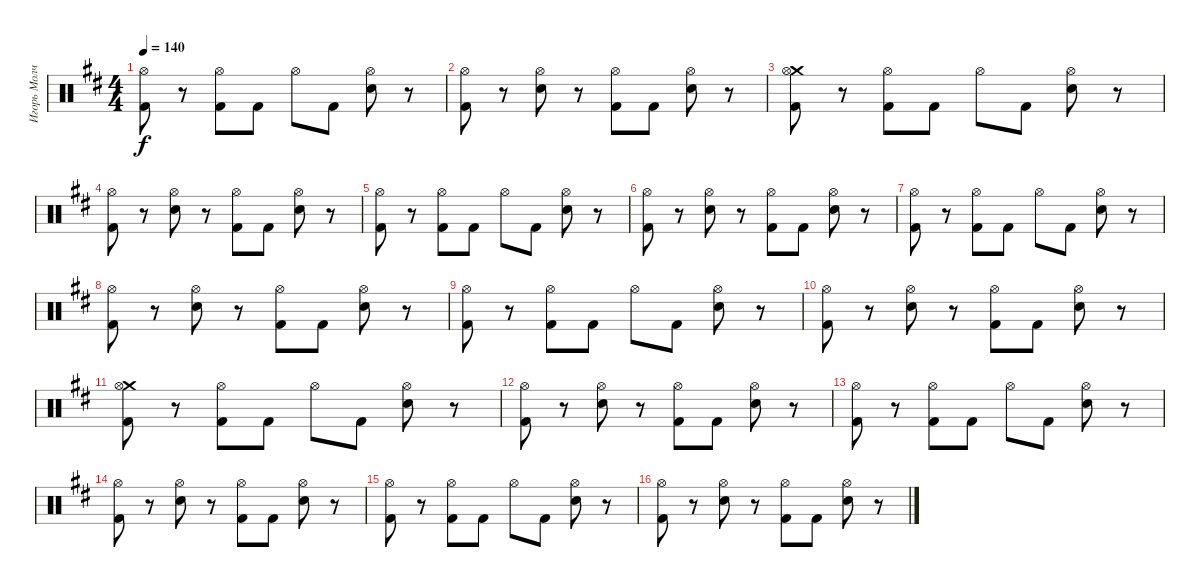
\track ("Игорь Молчанов" "Игорь Молч") {instrument percussion}
\staff {score}
\articulation defaults
\ts (4 4)
\tempo 140
\clef neutral
\ks d
("Hi-Hat (open)" "Kick (hit) 2").8{dy f} r.8 ("Hi-Hat (open)" "Kick (hit) 2").8 "Kick (hit) 2".8 "Hi-Hat (open)".8 "Kick (hit) 2".8 ("Hi-Hat (open)" "Snare (hit) 2").8 r.8 |
("Hi-Hat (open)" "Kick (hit) 2").8 r.8 ("Hi-Hat (open)" "Snare (hit) 2").8 r.8 ("Hi-Hat (open)" "Kick (hit) 2").8 "Kick (hit) 2".8 ("Hi-Hat (open)" "Snare (hit) 2").8 r.8 |
("Crash medium (hit)" "Hi-Hat (open)" "Kick (hit) 2").8 r.8 ("Hi-Hat (open)" "Kick (hit) 2").8 "Kick (hit) 2".8 "Hi-Hat (open)".8 "Kick (hit) 2".8 ("Hi-Hat (open)" "Snare (hit) 2").8 r.8 |
("Hi-Hat (open)" "Kick (hit) 2").8 r.8 ("Hi-Hat (open)" "Snare (hit) 2").8 r.8 ("Hi-Hat (open)" "Kick (hit) 2").8 "Kick (hit) 2".8 ("Hi-Hat (open)" "Snare (hit) 2").8 r.8 |
("Hi-Hat (open)" "Kick (hit) 2").8 r.8 ("Hi-Hat (open)" "Kick (hit) 2").8 "Kick (hit) 2".8 "Hi-Hat (open)".8 "Kick (hit) 2".8 ("Hi-Hat (open)" "Snare (hit) 2").8 r.8 |
("Hi-Hat (open)" "Kick (hit) 2").8 r.8 ("Hi-Hat (open)" "Snare (hit) 2").8 r.8 ("Hi-Hat (open)" "Kick (hit) 2").8 "Kick (hit) 2".8 ("Hi-Hat (open)" "Snare (hit) 2").8 r.8 |
("Hi-Hat (open)" "Kick (hit) 2").8 r.8 ("Hi-Hat (open)" "Kick (hit) 2").8 "Kick (hit) 2".8 "Hi-Hat (open)".8 "Kick (hit) 2".8 ("Hi-Hat (open)" "Snare (hit) 2").8 r.8 |
("Hi-Hat (open)" "Kick (hit) 2").8 r.8 ("Hi-Hat (open)" "Snare (hit) 2").8 r.8 ("Hi-Hat (open)" "Kick (hit) 2").8 "Kick (hit) 2".8 ("Hi-Hat (open)" "Snare (hit) 2").8 r.8 |
("Hi-Hat (open)" "Kick (hit) 2").8 r.8 ("Hi-Hat (open)" "Kick (hit) 2").8 "Kick (hit) 2".8 "Hi-Hat (open)".8 "Kick (hit) 2".8 ("Hi-Hat (open)" "Snare (hit) 2").8 r.8 |
("Hi-Hat (open)" "Kick (hit) 2").8 r.8 ("Hi-Hat (open)" "Snare (hit) 2").8 r.8 ("Hi-Hat (open)" "Kick (hit) 2").8 "Kick (hit) 2".8 ("Hi-Hat (open)" "Snare (hit) 2").8 r.8 |
("Crash medium (hit)" "Hi-Hat (open)" "Kick (hit) 2").8 r.8 ("Hi-Hat (open)" "Kick (hit) 2").8 "Kick (hit) 2".8 "Hi-Hat (open)".8 "Kick (hit) 2".8 ("Hi-Hat (open)" "Snare (hit) 2").8 r.8 |
("Hi-Hat (open)" "Kick (hit) 2").8 r.8 ("Hi-Hat (open)" "Snare (hit) 2").8 r.8 ("Hi-Hat (open)" "Kick (hit) 2").8 "Kick (hit) 2".8 ("Hi-Hat (open)" "Snare (hit) 2").8 r.8 |
("Hi-Hat (open)" "Kick (hit) 2").8 r.8 ("Hi-Hat (open)" "Kick (hit) 2").8 "Kick (hit) 2".8 "Hi-Hat (open)".8 "Kick (hit) 2".8 ("Hi-Hat (open)" "Snare (hit) 2").8 r.8 |
("Hi-Hat (open)" "Kick (hit) 2").8 r.8 ("Hi-Hat (open)" "Snare (hit) 2").8 r.8 ("Hi-Hat (open)" "Kick (hit) 2").8 "Kick (hit) 2".8 ("Hi-Hat (open)" "Snare (hit) 2").8 r.8 |
("Hi-Hat (open)" "Kick (hit) 2").8 r.8 ("Hi-Hat (open)" "Kick (hit) 2").8 "Kick (hit) 2".8 "Hi-Hat (open)".8 "Kick (hit) 2".8 ("Hi-Hat (open)" "Snare (hit) 2").8 r.8 |
("Hi-Hat (open)" "Kick (hit) 2").8 r.8 ("Hi-Hat (open)" "Snare (hit) 2").8 r.8 ("Hi-Hat (open)" "Kick (hit) 2").8 "Kick (hit) 2".8 ("Hi-Hat (open)" "Snare (hit) 2").8 r.8
